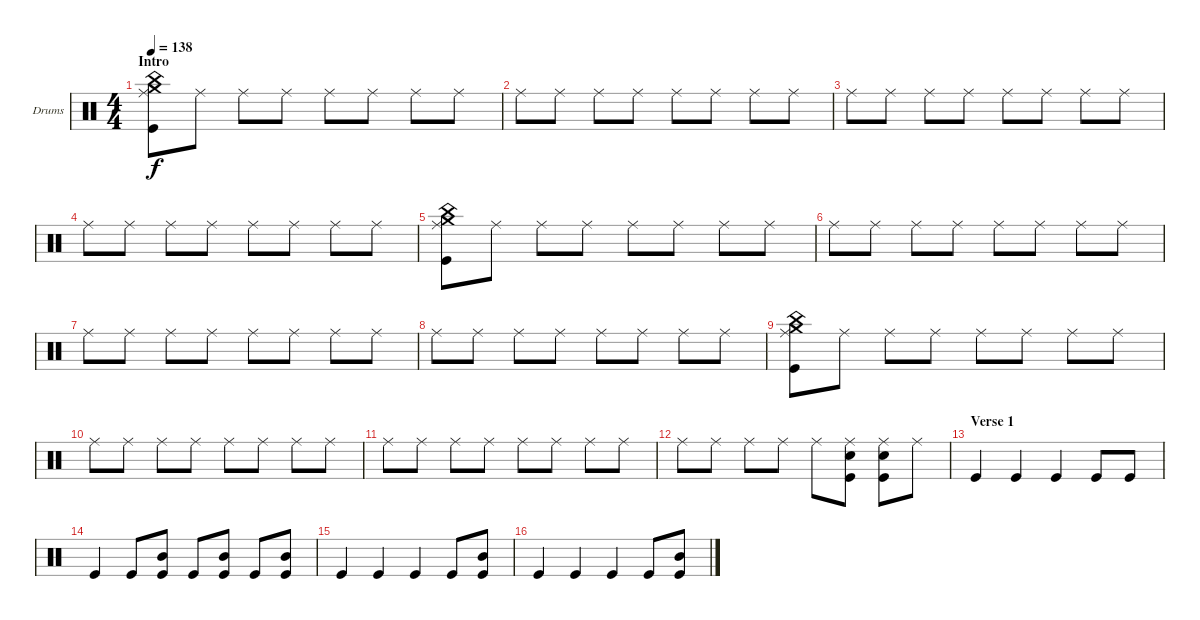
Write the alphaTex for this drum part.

\bracketExtendMode groupsimilarinstruments
\firstSystemTrackNameOrientation horizontal
\otherSystemsTrackNameOrientation horizontal
\track ("Drumkit" "Drums") {instrument percussion}
\staff {score}
\articulation defaults
\ts (4 4)
\section ("" "Intro")
\tempo 138
\clef neutral
\ks c
("Ride (middle)" "Crash medium (hit)" "China (hit)" "Kick (hit)").8{dy f} "Ride (middle)".8 "Ride (middle)".8 "Ride (middle)".8 "Ride (middle)".8 "Ride (middle)".8 "Ride (middle)".8 "Ride (middle)".8 |
"Ride (middle)".8 "Ride (middle)".8 "Ride (middle)".8 "Ride (middle)".8 "Ride (middle)".8 "Ride (middle)".8 "Ride (middle)".8 "Ride (middle)".8 |
"Ride (middle)".8 "Ride (middle)".8 "Ride (middle)".8 "Ride (middle)".8 "Ride (middle)".8 "Ride (middle)".8 "Ride (middle)".8 "Ride (middle)".8 |
"Ride (middle)".8 "Ride (middle)".8 "Ride (middle)".8 "Ride (middle)".8 "Ride (middle)".8 "Ride (middle)".8 "Ride (middle)".8 "Ride (middle)".8 |
("Ride (middle)" "Crash medium (hit)" "China (hit)" "Kick (hit)").8 "Ride (middle)".8 "Ride (middle)".8 "Ride (middle)".8 "Ride (middle)".8 "Ride (middle)".8 "Ride (middle)".8 "Ride (middle)".8 |
"Ride (middle)".8 "Ride (middle)".8 "Ride (middle)".8 "Ride (middle)".8 "Ride (middle)".8 "Ride (middle)".8 "Ride (middle)".8 "Ride (middle)".8 |
"Ride (middle)".8 "Ride (middle)".8 "Ride (middle)".8 "Ride (middle)".8 "Ride (middle)".8 "Ride (middle)".8 "Ride (middle)".8 "Ride (middle)".8 |
"Ride (middle)".8 "Ride (middle)".8 "Ride (middle)".8 "Ride (middle)".8 "Ride (middle)".8 "Ride (middle)".8 "Ride (middle)".8 "Ride (middle)".8 |
("Ride (middle)" "Crash medium (hit)" "China (hit)" "Kick (hit)").8 "Ride (middle)".8 "Ride (middle)".8 "Ride (middle)".8 "Ride (middle)".8 "Ride (middle)".8 "Ride (middle)".8 "Ride (middle)".8 |
"Ride (middle)".8 "Ride (middle)".8 "Ride (middle)".8 "Ride (middle)".8 "Ride (middle)".8 "Ride (middle)".8 "Ride (middle)".8 "Ride (middle)".8 |
"Ride (middle)".8 "Ride (middle)".8 "Ride (middle)".8 "Ride (middle)".8 "Ride (middle)".8 "Ride (middle)".8 "Ride (middle)".8 "Ride (middle)".8 |
"Ride (middle)".8 "Ride (middle)".8 "Ride (middle)".8 "Ride (middle)".8 "Ride (middle)".8 ("Ride (middle)" "Snare (hit) 2" "Kick (hit)").8 ("Ride (middle)" "Snare (hit) 2" "Kick (hit)").8 "Ride (middle)".8 |
\section ("" "Verse 1")
"Kick (hit)".4 "Kick (hit)".4 "Kick (hit)".4 "Kick (hit)".8 "Kick (hit)".8 |
"Kick (hit)".4 "Kick (hit)".8 ("Mid Tom (hit)" "Kick (hit)").8 "Kick (hit)".8 ("Mid Tom (hit)" "Kick (hit)").8 "Kick (hit)".8 ("Mid Tom (hit)" "Kick (hit)").8 |
"Kick (hit)".4 "Kick (hit)".4 "Kick (hit)".4 "Kick (hit)".8 ("Mid Tom (hit)" "Kick (hit)").8 |
"Kick (hit)".4 "Kick (hit)".4 "Kick (hit)".4 "Kick (hit)".8 ("Mid Tom (hit)" "Kick (hit)").8
